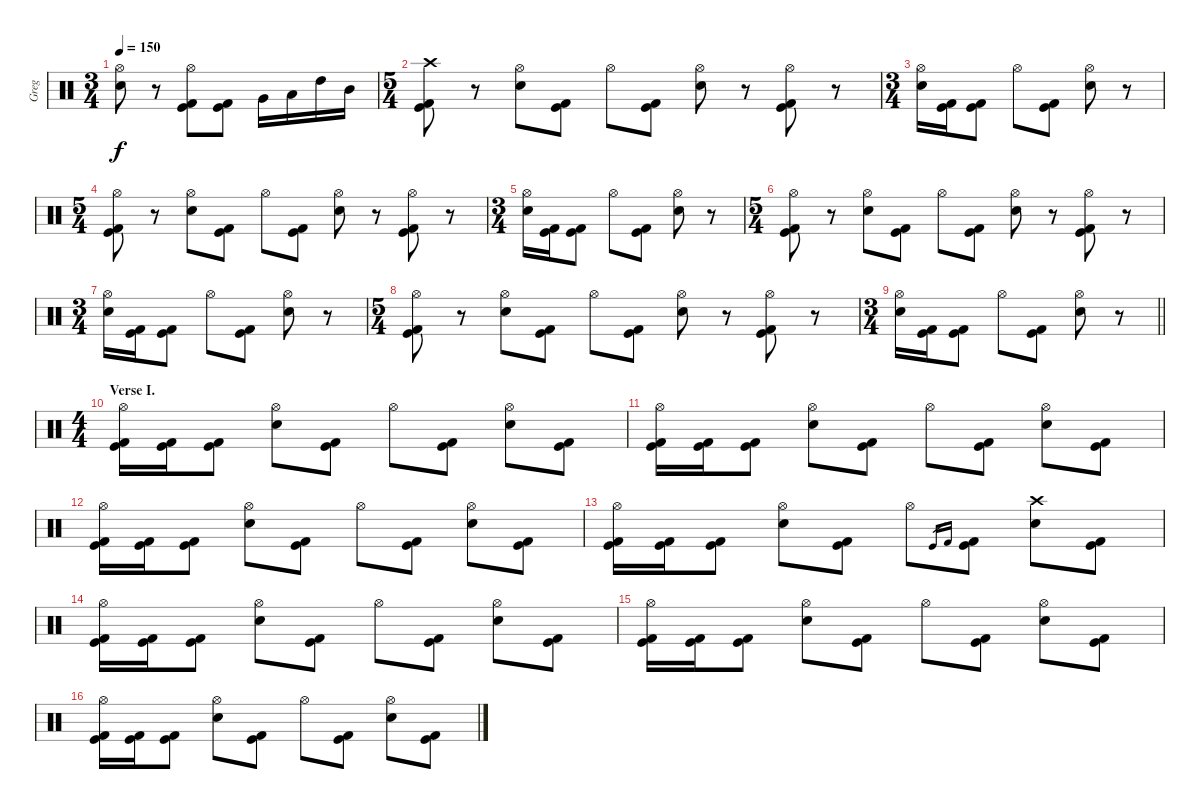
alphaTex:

\track ("Greg" "Greg") {instrument percussion}
\staff {score}
\articulation defaults
\ts (3 4)
\tempo 150
\clef neutral
\ks c
("Hi-Hat (open)" "Snare (hit) 2").8{dy f} r.8 ("Hi-Hat (open)" "Kick (hit)" "Kick (hit) 2").8 ("Kick (hit)" "Kick (hit) 2").8 "Very Low Tom (hit)".16 "Low Tom (hit)".16 "High Tom (hit)".16 "Mid Tom (hit)".16 |
\ts (5 4)
("Crash high (hit)" "Kick (hit)" "Kick (hit) 2").8 r.8 ("Hi-Hat (open)" "Snare (hit) 2").8 ("Kick (hit)" "Kick (hit) 2").8 "Hi-Hat (open)".8 ("Kick (hit)" "Kick (hit) 2").8 ("Hi-Hat (open)" "Snare (hit) 2").8 r.8 ("Hi-Hat (open)" "Kick (hit)" "Kick (hit) 2").8 r.8 |
\ts (3 4)
("Hi-Hat (open)" "Snare (hit) 2").16 ("Kick (hit)" "Kick (hit) 2").16 ("Kick (hit)" "Kick (hit) 2").8 "Hi-Hat (open)".8 ("Kick (hit)" "Kick (hit) 2").8 ("Hi-Hat (open)" "Snare (hit) 2").8 r.8 |
\ts (5 4)
("Hi-Hat (open)" "Kick (hit)" "Kick (hit) 2").8 r.8 ("Hi-Hat (open)" "Snare (hit) 2").8 ("Kick (hit)" "Kick (hit) 2").8 "Hi-Hat (open)".8 ("Kick (hit)" "Kick (hit) 2").8 ("Hi-Hat (open)" "Snare (hit) 2").8 r.8 ("Hi-Hat (open)" "Kick (hit)" "Kick (hit) 2").8 r.8 |
\ts (3 4)
("Hi-Hat (open)" "Snare (hit) 2").16 ("Kick (hit)" "Kick (hit) 2").16 ("Kick (hit)" "Kick (hit) 2").8 "Hi-Hat (open)".8 ("Kick (hit)" "Kick (hit) 2").8 ("Hi-Hat (open)" "Snare (hit) 2").8 r.8 |
\ts (5 4)
("Hi-Hat (open)" "Kick (hit)" "Kick (hit) 2").8 r.8 ("Hi-Hat (open)" "Snare (hit) 2").8 ("Kick (hit)" "Kick (hit) 2").8 "Hi-Hat (open)".8 ("Kick (hit)" "Kick (hit) 2").8 ("Hi-Hat (open)" "Snare (hit) 2").8 r.8 ("Hi-Hat (open)" "Kick (hit)" "Kick (hit) 2").8 r.8 |
\ts (3 4)
("Hi-Hat (open)" "Snare (hit) 2").16 ("Kick (hit)" "Kick (hit) 2").16 ("Kick (hit)" "Kick (hit) 2").8 "Hi-Hat (open)".8 ("Kick (hit)" "Kick (hit) 2").8 ("Hi-Hat (open)" "Snare (hit) 2").8 r.8 |
\ts (5 4)
("Hi-Hat (open)" "Kick (hit)" "Kick (hit) 2").8 r.8 ("Hi-Hat (open)" "Snare (hit) 2").8 ("Kick (hit)" "Kick (hit) 2").8 "Hi-Hat (open)".8 ("Kick (hit)" "Kick (hit) 2").8 ("Hi-Hat (open)" "Snare (hit) 2").8 r.8 ("Hi-Hat (open)" "Kick (hit)" "Kick (hit) 2").8 r.8 |
\ts (3 4)
\barLineRight lightlight
("Hi-Hat (open)" "Snare (hit) 2").16 ("Kick (hit)" "Kick (hit) 2").16 ("Kick (hit)" "Kick (hit) 2").8 "Hi-Hat (open)".8 ("Kick (hit)" "Kick (hit) 2").8 ("Hi-Hat (open)" "Snare (hit) 2").8 r.8 |
\ts (4 4)
\section ("" "Verse I.")
("Hi-Hat (open)" "Kick (hit)" "Kick (hit) 2").16 ("Kick (hit)" "Kick (hit) 2").16 ("Kick (hit)" "Kick (hit) 2").8 ("Hi-Hat (open)" "Snare (hit) 2").8 ("Kick (hit)" "Kick (hit) 2").8 "Hi-Hat (open)".8 ("Kick (hit)" "Kick (hit) 2").8 ("Hi-Hat (open)" "Snare (hit) 2").8 ("Kick (hit)" "Kick (hit) 2").8 |
("Hi-Hat (open)" "Kick (hit)" "Kick (hit) 2").16 ("Kick (hit)" "Kick (hit) 2").16 ("Kick (hit)" "Kick (hit) 2").8 ("Hi-Hat (open)" "Snare (hit) 2").8 ("Kick (hit)" "Kick (hit) 2").8 "Hi-Hat (open)".8 ("Kick (hit)" "Kick (hit) 2").8 ("Hi-Hat (open)" "Snare (hit) 2").8 ("Kick (hit)" "Kick (hit) 2").8 |
("Hi-Hat (open)" "Kick (hit)" "Kick (hit) 2").16 ("Kick (hit)" "Kick (hit) 2").16 ("Kick (hit)" "Kick (hit) 2").8 ("Hi-Hat (open)" "Snare (hit) 2").8 ("Kick (hit)" "Kick (hit) 2").8 "Hi-Hat (open)".8 ("Kick (hit)" "Kick (hit) 2").8 ("Hi-Hat (open)" "Snare (hit) 2").8 ("Kick (hit)" "Kick (hit) 2").8 |
("Hi-Hat (open)" "Kick (hit)" "Kick (hit) 2").16 ("Kick (hit)" "Kick (hit) 2").16 ("Kick (hit)" "Kick (hit) 2").8 ("Hi-Hat (open)" "Snare (hit) 2").8 ("Kick (hit)" "Kick (hit) 2").8 "Hi-Hat (open)".8 "Kick (hit)".16{gr} "Kick (hit) 2".16{gr} ("Kick (hit)" "Kick (hit) 2").8 ("Crash high (hit)" "Snare (hit) 2").8 ("Kick (hit)" "Kick (hit) 2").8 |
("Hi-Hat (open)" "Kick (hit)" "Kick (hit) 2").16 ("Kick (hit)" "Kick (hit) 2").16 ("Kick (hit)" "Kick (hit) 2").8 ("Hi-Hat (open)" "Snare (hit) 2").8 ("Kick (hit)" "Kick (hit) 2").8 "Hi-Hat (open)".8 ("Kick (hit)" "Kick (hit) 2").8 ("Hi-Hat (open)" "Snare (hit) 2").8 ("Kick (hit)" "Kick (hit) 2").8 |
("Hi-Hat (open)" "Kick (hit)" "Kick (hit) 2").16 ("Kick (hit)" "Kick (hit) 2").16 ("Kick (hit)" "Kick (hit) 2").8 ("Hi-Hat (open)" "Snare (hit) 2").8 ("Kick (hit)" "Kick (hit) 2").8 "Hi-Hat (open)".8 ("Kick (hit)" "Kick (hit) 2").8 ("Hi-Hat (open)" "Snare (hit) 2").8 ("Kick (hit)" "Kick (hit) 2").8 |
("Hi-Hat (open)" "Kick (hit)" "Kick (hit) 2").16 ("Kick (hit)" "Kick (hit) 2").16 ("Kick (hit)" "Kick (hit) 2").8 ("Hi-Hat (open)" "Snare (hit) 2").8 ("Kick (hit)" "Kick (hit) 2").8 "Hi-Hat (open)".8 ("Kick (hit)" "Kick (hit) 2").8 ("Hi-Hat (open)" "Snare (hit) 2").8 ("Kick (hit)" "Kick (hit) 2").8
